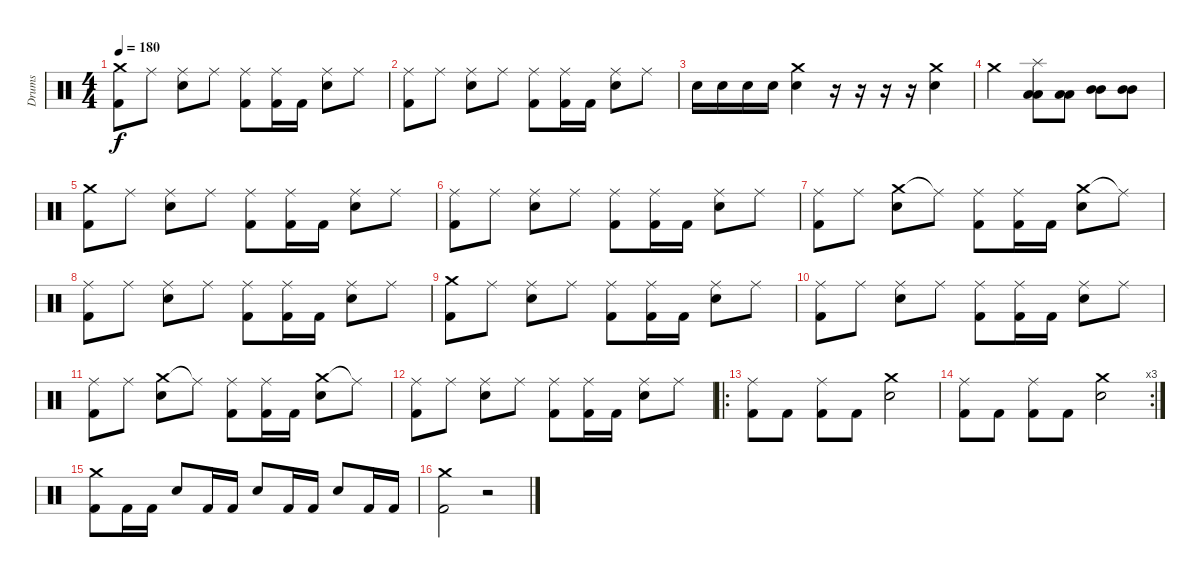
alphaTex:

\track ("Drums" "Drums") {instrument percussion}
\staff {score}
\articulation defaults
\ts (4 4)
\tempo 180
\clef neutral
\ks c
("Crash medium (hit)" "Kick (hit) 2").8{dy f} "Ride (middle)".8 ("Ride (middle)" "Electric Snare (hit)").8 "Ride (middle)".8 ("Ride (middle)" "Kick (hit) 2").8 ("Ride (middle)" "Kick (hit) 2").16 "Kick (hit) 2".16 ("Ride (middle)" "Electric Snare (hit)").8 "Ride (middle)".8 |
("Ride (middle)" "Kick (hit) 2").8 "Ride (middle)".8 ("Ride (middle)" "Electric Snare (hit)").8 "Ride (middle)".8 ("Ride (middle)" "Kick (hit) 2").8 ("Ride (middle)" "Kick (hit) 2").16 "Kick (hit) 2".16 ("Ride (middle)" "Electric Snare (hit)").8 "Ride (middle)".8 |
"Electric Snare (hit)".16 "Electric Snare (hit)".16 "Electric Snare (hit)".16 "Electric Snare (hit)".16 ("Electric Snare (hit)" "Crash medium (hit)").4 r.16 r.16 r.16 r.16 ("Electric Snare (hit)" "Crash medium (hit)").4 |
"Crash medium (hit)".2 ("Splash (hit)" "Low Tom (hit)" "Low Tom (hit)").8 ("Low Tom (hit)" "Low Tom (hit)").8 ("Mid Tom (hit)" "Mid Tom (hit)").8 ("Mid Tom (hit)" "Mid Tom (hit)").8 |
("Crash medium (hit)" "Kick (hit) 2").8 "Ride (middle)".8 ("Ride (middle)" "Electric Snare (hit)").8 "Ride (middle)".8 ("Ride (middle)" "Kick (hit) 2").8 ("Ride (middle)" "Kick (hit) 2").16 "Kick (hit) 2".16 ("Ride (middle)" "Electric Snare (hit)").8 "Ride (middle)".8 |
("Ride (middle)" "Kick (hit) 2").8 "Ride (middle)".8 ("Ride (middle)" "Electric Snare (hit)").8 "Ride (middle)".8 ("Ride (middle)" "Kick (hit) 2").8 ("Ride (middle)" "Kick (hit) 2").16 "Kick (hit) 2".16 ("Ride (middle)" "Electric Snare (hit)").8 "Ride (middle)".8 |
("Ride (middle)" "Kick (hit) 2").8 "Ride (middle)".8 ("Crash medium (hit)" "Electric Snare (hit)").8 "Ride (middle)"{t}.8 ("Ride (middle)" "Kick (hit) 2").8 ("Ride (middle)" "Kick (hit) 2").16 "Kick (hit) 2".16 ("Crash medium (hit)" "Electric Snare (hit)").8 "Ride (middle)"{t}.8 |
("Ride (middle)" "Kick (hit) 2").8 "Ride (middle)".8 ("Ride (middle)" "Electric Snare (hit)").8 "Ride (middle)".8 ("Ride (middle)" "Kick (hit) 2").8 ("Ride (middle)" "Kick (hit) 2").16 "Kick (hit) 2".16 ("Ride (middle)" "Electric Snare (hit)").8 "Ride (middle)".8 |
("Crash medium (hit)" "Kick (hit) 2").8 "Ride (middle)".8 ("Ride (middle)" "Electric Snare (hit)").8 "Ride (middle)".8 ("Ride (middle)" "Kick (hit) 2").8 ("Ride (middle)" "Kick (hit) 2").16 "Kick (hit) 2".16 ("Ride (middle)" "Electric Snare (hit)").8 "Ride (middle)".8 |
("Ride (middle)" "Kick (hit) 2").8 "Ride (middle)".8 ("Ride (middle)" "Electric Snare (hit)").8 "Ride (middle)".8 ("Ride (middle)" "Kick (hit) 2").8 ("Ride (middle)" "Kick (hit) 2").16 "Kick (hit) 2".16 ("Ride (middle)" "Electric Snare (hit)").8 "Ride (middle)".8 |
("Ride (middle)" "Kick (hit) 2").8 "Ride (middle)".8 ("Crash medium (hit)" "Electric Snare (hit)").8 "Ride (middle)"{t}.8 ("Ride (middle)" "Kick (hit) 2").8 ("Ride (middle)" "Kick (hit) 2").16 "Kick (hit) 2".16 ("Crash medium (hit)" "Electric Snare (hit)").8 "Ride (middle)"{t}.8 |
("Ride (middle)" "Kick (hit) 2").8 "Ride (middle)".8 ("Ride (middle)" "Electric Snare (hit)").8 "Ride (middle)".8 ("Ride (middle)" "Kick (hit) 2").8 ("Ride (middle)" "Kick (hit) 2").16 "Kick (hit) 2".16 ("Ride (middle)" "Electric Snare (hit)").8 "Ride (middle)".8 |
\ro
("Ride (middle)" "Kick (hit) 2").8 "Kick (hit) 2".8 ("Ride (middle)" "Kick (hit) 2").8 "Kick (hit) 2".8 ("Crash medium (hit)" "Electric Snare (hit)").2 |
\rc 3
("Ride (middle)" "Kick (hit) 2").8 "Kick (hit) 2".8 ("Ride (middle)" "Kick (hit) 2").8 "Kick (hit) 2".8 ("Crash medium (hit)" "Electric Snare (hit)").2 |
("Crash medium (hit)" "Kick (hit) 2").8 "Kick (hit) 2".16 "Kick (hit) 2".16 "Electric Snare (hit)".8 "Kick (hit) 2".16 "Kick (hit) 2".16 "Electric Snare (hit)".8 "Kick (hit) 2".16 "Kick (hit) 2".16 "Electric Snare (hit)".8 "Kick (hit) 2".16 "Kick (hit) 2".16 |
("Crash medium (hit)" "Kick (hit) 2").2 r.2
